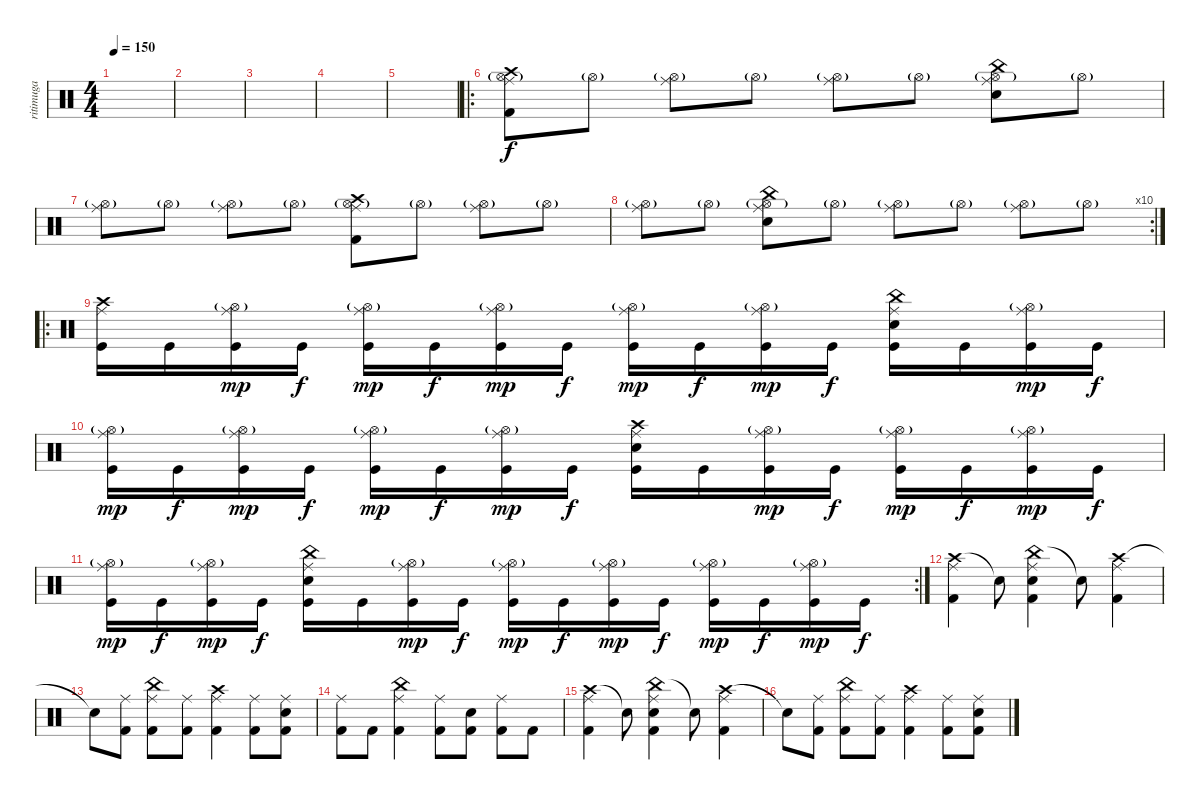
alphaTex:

\track ("ritimuga" "ritimuga") {instrument percussion}
\staff {score}
\articulation defaults
\ts (4 4)
\tempo 150
\clef neutral
\ks c
|
|
|
|
|
\ro
("Hi-Hat (open)"{g} "Ride (middle)" "Crash high (hit)" "Kick (hit) 2").8 "Hi-Hat (open)"{g}.8 ("Hi-Hat (open)"{g} "Ride (middle)").8 "Hi-Hat (open)"{g}.8 ("Hi-Hat (open)"{g} "Ride (middle)").8 "Hi-Hat (open)"{g}.8 ("Hi-Hat (open)"{g} "Ride (middle)" "China (hit)" "Electric Snare (hit)").8 "Hi-Hat (open)"{g}.8 |
("Hi-Hat (open)"{g} "Ride (middle)").8 "Hi-Hat (open)"{g}.8 ("Hi-Hat (open)"{g} "Ride (middle)").8 "Hi-Hat (open)"{g}.8 ("Hi-Hat (open)"{g} "Ride (middle)" "Crash high (hit)" "Kick (hit) 2").8 "Hi-Hat (open)"{g}.8 ("Hi-Hat (open)"{g} "Ride (middle)").8 "Hi-Hat (open)"{g}.8 |
\rc 10
("Hi-Hat (open)"{g} "Ride (middle)").8 "Hi-Hat (open)"{g}.8 ("Hi-Hat (open)"{g} "Ride (middle)" "China (hit)" "Electric Snare (hit)").8 "Hi-Hat (open)"{g}.8 ("Hi-Hat (open)"{g} "Ride (middle)").8 "Hi-Hat (open)"{g}.8 ("Hi-Hat (open)"{g} "Ride (middle)").8 "Hi-Hat (open)"{g}.8 |
\ro
("Crash high (hit)" "Ride (middle)" "Kick (hit)").16{dy f} "Kick (hit)".16 ("Hi-Hat (open)"{g} "Ride (middle)" "Kick (hit)").16{dy mp} "Kick (hit)".16{dy f} ("Hi-Hat (open)"{g} "Ride (middle)" "Kick (hit)").16{dy mp} "Kick (hit)".16{dy f} ("Hi-Hat (open)"{g} "Ride (middle)" "Kick (hit)").16{dy mp} "Kick (hit)".16{dy f} ("Hi-Hat (open)"{g} "Ride (middle)" "Kick (hit)").16{dy mp} "Kick (hit)".16{dy f} ("Hi-Hat (open)"{g} "Ride (middle)" "Kick (hit)").16{dy mp} "Kick (hit)".16{dy f} ("China (hit)" "Electric Snare (hit)" "Ride (middle)" "Kick (hit)").16 "Kick (hit)".16 ("Hi-Hat (open)"{g} "Ride (middle)" "Kick (hit)").16{dy mp} "Kick (hit)".16{dy f} |
("Hi-Hat (open)"{g} "Ride (middle)" "Kick (hit)").16{dy mp} "Kick (hit)".16{dy f} ("Hi-Hat (open)"{g} "Ride (middle)" "Kick (hit)").16{dy mp} "Kick (hit)".16{dy f} ("Hi-Hat (open)"{g} "Ride (middle)" "Kick (hit)").16{dy mp} "Kick (hit)".16{dy f} ("Hi-Hat (open)"{g} "Ride (middle)" "Kick (hit)").16{dy mp} "Kick (hit)".16{dy f} ("Crash high (hit)" "Electric Snare (hit)" "Ride (middle)" "Kick (hit)").16 "Kick (hit)".16 ("Hi-Hat (open)"{g} "Ride (middle)" "Kick (hit)").16{dy mp} "Kick (hit)".16{dy f} ("Hi-Hat (open)"{g} "Ride (middle)" "Kick (hit)").16{dy mp} "Kick (hit)".16{dy f} ("Hi-Hat (open)"{g} "Ride (middle)" "Kick (hit)").16{dy mp} "Kick (hit)".16{dy f} |
\rc 2
("Hi-Hat (open)"{g} "Ride (middle)" "Kick (hit)").16{dy mp} "Kick (hit)".16{dy f} ("Hi-Hat (open)"{g} "Ride (middle)" "Kick (hit)").16{dy mp} "Kick (hit)".16{dy f} ("China (hit)" "Electric Snare (hit)" "Ride (middle)" "Kick (hit)").16 "Kick (hit)".16 ("Hi-Hat (open)"{g} "Ride (middle)" "Kick (hit)").16{dy mp} "Kick (hit)".16{dy f} ("Hi-Hat (open)"{g} "Ride (middle)" "Kick (hit)").16{dy mp} "Kick (hit)".16{dy f} ("Hi-Hat (open)"{g} "Ride (middle)" "Kick (hit)").16{dy mp} "Kick (hit)".16{dy f} ("Hi-Hat (open)"{g} "Ride (middle)" "Kick (hit)").16{dy mp} "Kick (hit)".16{dy f} ("Hi-Hat (open)"{g} "Ride (middle)" "Kick (hit)").16{dy mp} "Kick (hit)".16{dy f} |
("Crash high (hit)" "Ride (middle)" "Kick (hit) 2").4 "Snare (hit)"{t}.8 ("China (hit)" "Electric Snare (hit)" "Ride (middle)" "Kick (hit) 2").4 "Snare (hit)"{t}.8 ("Crash high (hit)" "Ride (middle)" "Kick (hit) 2").4 |
"Snare (hit)"{t}.8 ("Ride (middle)" "Kick (hit) 2").8 ("Ride (middle)" "China (hit)" "Kick (hit) 2").8 ("Ride (middle)" "Kick (hit) 2").8 ("Ride (middle)" "Crash high (hit)" "Kick (hit) 2").4 ("Ride (middle)" "Kick (hit) 2").8 ("Ride (middle)" "Electric Snare (hit)" "Kick (hit) 2").8 |
("Ride (middle)" "Kick (hit) 2").8 "Kick (hit) 2".8 ("Ride (middle)" "China (hit)" "Kick (hit) 2").4 ("Ride (middle)" "Kick (hit) 2").8 ("Electric Snare (hit)" "Kick (hit) 2").8 ("Ride (middle)" "Kick (hit) 2").8 "Kick (hit) 2".8 |
("Crash high (hit)" "Ride (middle)" "Kick (hit) 2").4 "Snare (hit)"{t}.8 ("China (hit)" "Electric Snare (hit)" "Ride (middle)" "Kick (hit) 2").4 "Snare (hit)"{t}.8 ("Crash high (hit)" "Ride (middle)" "Kick (hit) 2").4 |
"Snare (hit)"{t}.8 ("Ride (middle)" "Kick (hit) 2").8 ("Ride (middle)" "China (hit)" "Kick (hit) 2").8 ("Ride (middle)" "Kick (hit) 2").8 ("Ride (middle)" "Crash high (hit)" "Kick (hit) 2").4 ("Ride (middle)" "Kick (hit) 2").8 ("Ride (middle)" "Electric Snare (hit)" "Kick (hit) 2").8
